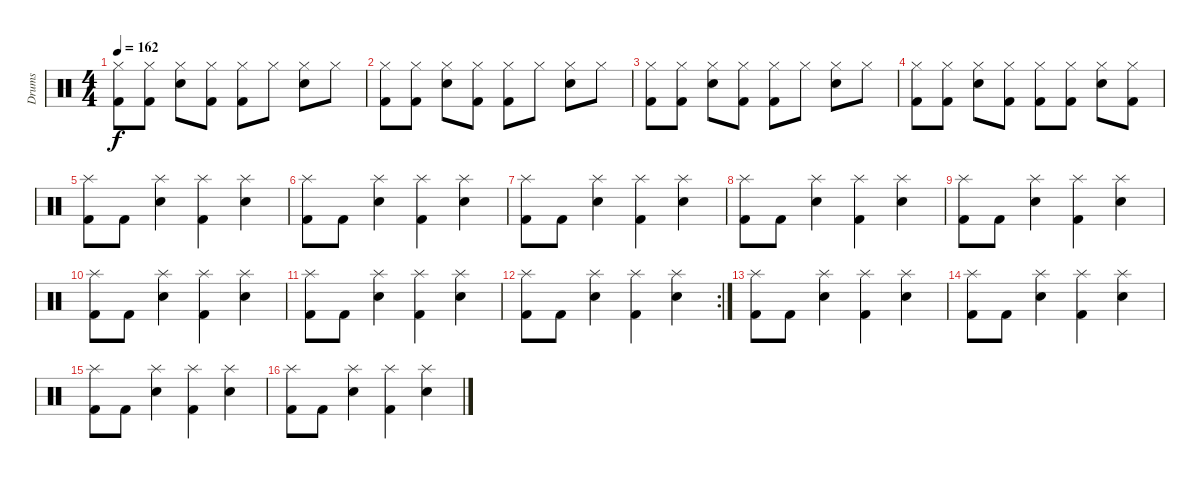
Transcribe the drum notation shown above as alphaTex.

\track ("Drums" "Drums") {instrument percussion}
\staff {score}
\articulation defaults
\ts (4 4)
\tempo 162
\clef neutral
\ks c
("Hi-Hat (closed)" "Kick (hit) 2").8{dy f} ("Hi-Hat (closed)" "Kick (hit) 2").8 ("Hi-Hat (closed)" "Snare (hit) 2").8 ("Hi-Hat (closed)" "Kick (hit) 2").8 ("Hi-Hat (closed)" "Kick (hit) 2").8 "Hi-Hat (closed)".8 ("Hi-Hat (closed)" "Snare (hit) 2").8 "Hi-Hat (closed)".8 |
("Hi-Hat (closed)" "Kick (hit) 2").8 ("Hi-Hat (closed)" "Kick (hit) 2").8 ("Hi-Hat (closed)" "Snare (hit) 2").8 ("Hi-Hat (closed)" "Kick (hit) 2").8 ("Hi-Hat (closed)" "Kick (hit) 2").8 "Hi-Hat (closed)".8 ("Hi-Hat (closed)" "Snare (hit) 2").8 "Hi-Hat (closed)".8 |
("Hi-Hat (closed)" "Kick (hit) 2").8 ("Hi-Hat (closed)" "Kick (hit) 2").8 ("Hi-Hat (closed)" "Snare (hit) 2").8 ("Hi-Hat (closed)" "Kick (hit) 2").8 ("Hi-Hat (closed)" "Kick (hit) 2").8 "Hi-Hat (closed)".8 ("Hi-Hat (closed)" "Snare (hit) 2").8 "Hi-Hat (closed)".8 |
("Hi-Hat (closed)" "Kick (hit) 2").8 ("Hi-Hat (closed)" "Kick (hit) 2").8 ("Hi-Hat (closed)" "Snare (hit) 2").8 ("Hi-Hat (closed)" "Kick (hit) 2").8 ("Hi-Hat (closed)" "Kick (hit) 2").8 ("Hi-Hat (closed)" "Kick (hit) 2").8 ("Hi-Hat (closed)" "Snare (hit) 2").8 ("Hi-Hat (closed)" "Kick (hit) 2").8 |
("Splash (hit)" "Kick (hit) 2").8 "Kick (hit) 2".8 ("Splash (hit)" "Snare (hit) 2").4 ("Splash (hit)" "Kick (hit) 2").4 ("Splash (hit)" "Snare (hit) 2").4 |
("Splash (hit)" "Kick (hit) 2").8 "Kick (hit) 2".8 ("Splash (hit)" "Snare (hit) 2").4 ("Splash (hit)" "Kick (hit) 2").4 ("Splash (hit)" "Snare (hit) 2").4 |
("Splash (hit)" "Kick (hit) 2").8 "Kick (hit) 2".8 ("Splash (hit)" "Snare (hit) 2").4 ("Splash (hit)" "Kick (hit) 2").4 ("Splash (hit)" "Snare (hit) 2").4 |
("Splash (hit)" "Kick (hit) 2").8 "Kick (hit) 2".8 ("Splash (hit)" "Snare (hit) 2").4 ("Splash (hit)" "Kick (hit) 2").4 ("Splash (hit)" "Snare (hit) 2").4 |
("Splash (hit)" "Kick (hit) 2").8 "Kick (hit) 2".8 ("Splash (hit)" "Snare (hit) 2").4 ("Splash (hit)" "Kick (hit) 2").4 ("Splash (hit)" "Snare (hit) 2").4 |
("Splash (hit)" "Kick (hit) 2").8 "Kick (hit) 2".8 ("Splash (hit)" "Snare (hit) 2").4 ("Splash (hit)" "Kick (hit) 2").4 ("Splash (hit)" "Snare (hit) 2").4 |
("Splash (hit)" "Kick (hit) 2").8 "Kick (hit) 2".8 ("Splash (hit)" "Snare (hit) 2").4 ("Splash (hit)" "Kick (hit) 2").4 ("Splash (hit)" "Snare (hit) 2").4 |
\rc 2
("Splash (hit)" "Kick (hit) 2").8 "Kick (hit) 2".8 ("Splash (hit)" "Snare (hit) 2").4 ("Splash (hit)" "Kick (hit) 2").4 ("Splash (hit)" "Snare (hit) 2").4 |
("Splash (hit)" "Kick (hit) 2").8 "Kick (hit) 2".8 ("Splash (hit)" "Snare (hit) 2").4 ("Splash (hit)" "Kick (hit) 2").4 ("Splash (hit)" "Snare (hit) 2").4 |
("Splash (hit)" "Kick (hit) 2").8 "Kick (hit) 2".8 ("Splash (hit)" "Snare (hit) 2").4 ("Splash (hit)" "Kick (hit) 2").4 ("Splash (hit)" "Snare (hit) 2").4 |
("Splash (hit)" "Kick (hit) 2").8 "Kick (hit) 2".8 ("Splash (hit)" "Snare (hit) 2").4 ("Splash (hit)" "Kick (hit) 2").4 ("Splash (hit)" "Snare (hit) 2").4 |
("Splash (hit)" "Kick (hit) 2").8 "Kick (hit) 2".8 ("Splash (hit)" "Snare (hit) 2").4 ("Splash (hit)" "Kick (hit) 2").4 ("Splash (hit)" "Snare (hit) 2").4
